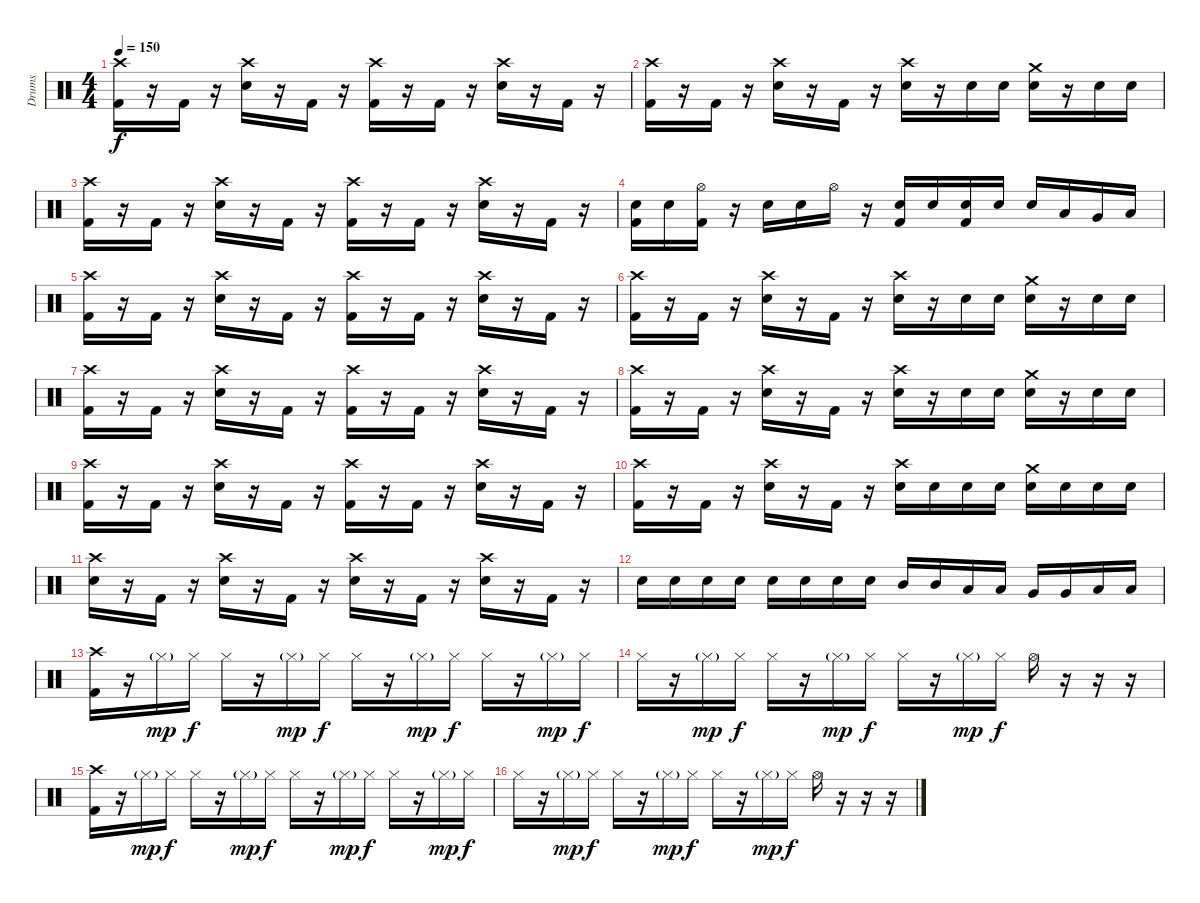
\track ("Drums" "Drums") {instrument percussion}
\staff {score}
\articulation defaults
\ts (4 4)
\tempo 150
\clef neutral
\ks c
("Crash high (hit)" "Kick (hit) 2").16{dy f} r.16 "Kick (hit) 2".16 r.16 ("Crash high (hit)" "Snare (hit) 2").16 r.16 "Kick (hit) 2".16 r.16 ("Crash high (hit)" "Kick (hit) 2").16 r.16 "Kick (hit) 2".16 r.16 ("Crash high (hit)" "Snare (hit) 2").16 r.16 "Kick (hit) 2".16 r.16 |
("Crash high (hit)" "Kick (hit) 2").16 r.16 "Kick (hit) 2".16 r.16 ("Crash high (hit)" "Snare (hit) 2").16 r.16 "Kick (hit) 2".16 r.16 ("Crash high (hit)" "Snare (hit) 2").16 r.16 "Snare (hit) 2".16 "Snare (hit) 2".16 ("Crash medium (hit)" "Snare (hit) 2").16 r.16 "Snare (hit) 2".16 "Snare (hit) 2".16 |
("Crash high (hit)" "Kick (hit) 2").16 r.16 "Kick (hit) 2".16 r.16 ("Crash high (hit)" "Snare (hit) 2").16 r.16 "Kick (hit) 2".16 r.16 ("Crash high (hit)" "Kick (hit) 2").16 r.16 "Kick (hit) 2".16 r.16 ("Crash high (hit)" "Snare (hit) 2").16 r.16 "Kick (hit) 2".16 r.16 |
("Snare (hit) 2" "Kick (hit) 2").16 "Snare (hit) 2".16 ("Hi-Hat (open)" "Kick (hit) 2").16 r.16 "Snare (hit) 2".16 "Snare (hit) 2".16 "Hi-Hat (open)".16 r.16 ("Snare (hit) 2" "Kick (hit) 2").16 "Snare (hit) 2".16 ("Snare (hit) 2" "Kick (hit) 2").16 "Snare (hit) 2".16 "Snare (hit) 2".16 "Low Tom (hit)".16 "Very Low Tom (hit)".16 "Low Floor Tom (hit)".16 |
("Crash high (hit)" "Kick (hit) 2").16 r.16 "Kick (hit) 2".16 r.16 ("Crash high (hit)" "Snare (hit) 2").16 r.16 "Kick (hit) 2".16 r.16 ("Crash high (hit)" "Kick (hit) 2").16 r.16 "Kick (hit) 2".16 r.16 ("Crash high (hit)" "Snare (hit) 2").16 r.16 "Kick (hit) 2".16 r.16 |
("Crash high (hit)" "Kick (hit) 2").16 r.16 "Kick (hit) 2".16 r.16 ("Crash high (hit)" "Snare (hit) 2").16 r.16 "Kick (hit) 2".16 r.16 ("Crash high (hit)" "Snare (hit) 2").16 r.16 "Snare (hit) 2".16 "Snare (hit) 2".16 ("Crash medium (hit)" "Snare (hit) 2").16 r.16 "Snare (hit) 2".16 "Snare (hit) 2".16 |
("Crash high (hit)" "Kick (hit) 2").16 r.16 "Kick (hit) 2".16 r.16 ("Crash high (hit)" "Snare (hit) 2").16 r.16 "Kick (hit) 2".16 r.16 ("Crash high (hit)" "Kick (hit) 2").16 r.16 "Kick (hit) 2".16 r.16 ("Crash high (hit)" "Snare (hit) 2").16 r.16 "Kick (hit) 2".16 r.16 |
("Crash high (hit)" "Kick (hit) 2").16 r.16 "Kick (hit) 2".16 r.16 ("Crash high (hit)" "Snare (hit) 2").16 r.16 "Kick (hit) 2".16 r.16 ("Crash high (hit)" "Snare (hit) 2").16 r.16 "Snare (hit) 2".16 "Snare (hit) 2".16 ("Crash medium (hit)" "Snare (hit) 2").16 r.16 "Snare (hit) 2".16 "Snare (hit) 2".16 |
("Crash high (hit)" "Kick (hit) 2").16 r.16 "Kick (hit) 2".16 r.16 ("Crash high (hit)" "Snare (hit) 2").16 r.16 "Kick (hit) 2".16 r.16 ("Crash high (hit)" "Kick (hit) 2").16 r.16 "Kick (hit) 2".16 r.16 ("Crash high (hit)" "Snare (hit) 2").16 r.16 "Kick (hit) 2".16 r.16 |
("Crash high (hit)" "Kick (hit) 2").16 r.16 "Kick (hit) 2".16 r.16 ("Crash high (hit)" "Snare (hit) 2").16 r.16 "Kick (hit) 2".16 r.16 ("Crash high (hit)" "Snare (hit) 2").16 "Snare (hit) 2".16 "Snare (hit) 2".16 "Snare (hit) 2".16 ("Crash medium (hit)" "Snare (hit) 2").16 "Snare (hit) 2".16 "Snare (hit) 2".16 "Snare (hit) 2".16 |
("Crash high (hit)" "Snare (hit) 2").16 r.16 "Kick (hit) 2".16 r.16 ("Crash high (hit)" "Snare (hit) 2").16 r.16 "Kick (hit) 2".16 r.16 ("Crash high (hit)" "Snare (hit) 2").16 r.16 "Kick (hit) 2".16 r.16 ("Crash high (hit)" "Snare (hit) 2").16 r.16 "Kick (hit) 2".16 r.16 |
"Snare (hit) 2".16 "Snare (hit) 2".16 "Snare (hit) 2".16 "Snare (hit) 2".16 "Snare (hit) 2".16 "Snare (hit) 2".16 "Snare (hit) 2".16 "Snare (hit) 2".16 "Mid Tom (hit)".16 "Mid Tom (hit)".16 "Low Tom (hit)".16 "Low Tom (hit)".16 "Very Low Tom (hit)".16 "Very Low Tom (hit)".16 "Low Floor Tom (hit)".16 "Low Floor Tom (hit)".16 |
("Crash high (hit)" "Kick (hit) 2").16 r.16 "Hi-Hat (closed)"{g}.16{dy mp} "Hi-Hat (closed)".16{dy f} "Hi-Hat (closed)".16 r.16 "Hi-Hat (closed)"{g}.16{dy mp} "Hi-Hat (closed)".16{dy f} "Hi-Hat (closed)".16 r.16 "Hi-Hat (closed)"{g}.16{dy mp} "Hi-Hat (closed)".16{dy f} "Hi-Hat (closed)".16 r.16 "Hi-Hat (closed)"{g}.16{dy mp} "Hi-Hat (closed)".16{dy f} |
"Hi-Hat (closed)".16 r.16 "Hi-Hat (closed)"{g}.16{dy mp} "Hi-Hat (closed)".16{dy f} "Hi-Hat (closed)".16 r.16 "Hi-Hat (closed)"{g}.16{dy mp} "Hi-Hat (closed)".16{dy f} "Hi-Hat (closed)".16 r.16 "Hi-Hat (closed)"{g}.16{dy mp} "Hi-Hat (closed)".16{dy f} "Hi-Hat (open)".16 r.16 r.16 r.16 |
("Crash high (hit)" "Kick (hit) 2").16 r.16 "Hi-Hat (closed)"{g}.16{dy mp} "Hi-Hat (closed)".16{dy f} "Hi-Hat (closed)".16 r.16 "Hi-Hat (closed)"{g}.16{dy mp} "Hi-Hat (closed)".16{dy f} "Hi-Hat (closed)".16 r.16 "Hi-Hat (closed)"{g}.16{dy mp} "Hi-Hat (closed)".16{dy f} "Hi-Hat (closed)".16 r.16 "Hi-Hat (closed)"{g}.16{dy mp} "Hi-Hat (closed)".16{dy f} |
"Hi-Hat (closed)".16 r.16 "Hi-Hat (closed)"{g}.16{dy mp} "Hi-Hat (closed)".16{dy f} "Hi-Hat (closed)".16 r.16 "Hi-Hat (closed)"{g}.16{dy mp} "Hi-Hat (closed)".16{dy f} "Hi-Hat (closed)".16 r.16 "Hi-Hat (closed)"{g}.16{dy mp} "Hi-Hat (closed)".16{dy f} "Hi-Hat (open)".16 r.16 r.16 r.16
